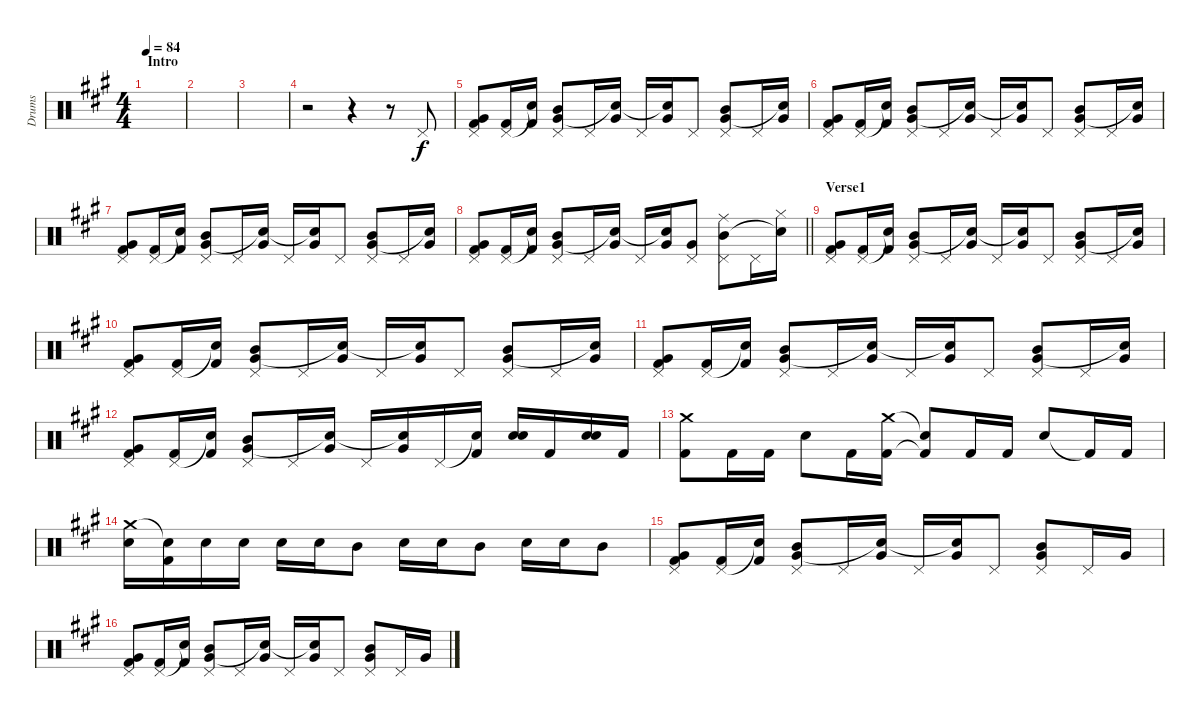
\track ("Drums" "Drums") {instrument percussion}
\staff {score}
\articulation defaults
\ts (4 4)
\section ("" "Intro")
\tempo 84
\clef neutral
\ks a
|
|
|
r.2 r.4 r.8 "Pedal Hi-Hat (hit)".8 |
("Very Low Tom (hit)" "Pedal Hi-Hat (hit)" "Kick (hit) 2").8 ("Pedal Hi-Hat (hit)" "Kick (hit) 2").16 ("Snare (hit)"{t} "Kick (hit) 2").16 ("Mid Tom (hit)" "Very Low Tom (hit)" "Pedal Hi-Hat (hit)").8 "Pedal Hi-Hat (hit)".16 ("Very Low Tom (hit)" "Snare (hit)"{t}).16 "Pedal Hi-Hat (hit)".16 ("Very Low Tom (hit)" "Snare (hit)"{t}).16 "Pedal Hi-Hat (hit)".8 ("Mid Tom (hit)" "Very Low Tom (hit)" "Pedal Hi-Hat (hit)").8 "Pedal Hi-Hat (hit)".16 ("Very Low Tom (hit)" "Snare (hit)"{t}).16 |
("Very Low Tom (hit)" "Pedal Hi-Hat (hit)" "Kick (hit) 2").8 ("Pedal Hi-Hat (hit)" "Kick (hit) 2").16 ("Snare (hit)"{t} "Kick (hit) 2").16 ("Mid Tom (hit)" "Very Low Tom (hit)" "Pedal Hi-Hat (hit)").8 "Pedal Hi-Hat (hit)".16 ("Very Low Tom (hit)" "Snare (hit)"{t}).16 "Pedal Hi-Hat (hit)".16 ("Very Low Tom (hit)" "Snare (hit)"{t}).16 "Pedal Hi-Hat (hit)".8 ("Mid Tom (hit)" "Very Low Tom (hit)" "Pedal Hi-Hat (hit)").8 "Pedal Hi-Hat (hit)".16 ("Very Low Tom (hit)" "Snare (hit)"{t}).16 |
("Very Low Tom (hit)" "Pedal Hi-Hat (hit)" "Kick (hit) 2").8 ("Pedal Hi-Hat (hit)" "Kick (hit) 2").16 ("Snare (hit)"{t} "Kick (hit) 2").16 ("Mid Tom (hit)" "Very Low Tom (hit)" "Pedal Hi-Hat (hit)").8 "Pedal Hi-Hat (hit)".16 ("Very Low Tom (hit)" "Snare (hit)"{t}).16 "Pedal Hi-Hat (hit)".16 ("Very Low Tom (hit)" "Snare (hit)"{t}).16 "Pedal Hi-Hat (hit)".8 ("Mid Tom (hit)" "Very Low Tom (hit)" "Pedal Hi-Hat (hit)").8 "Pedal Hi-Hat (hit)".16 ("Very Low Tom (hit)" "Snare (hit)"{t}).16 |
\barLineRight lightlight
("Very Low Tom (hit)" "Pedal Hi-Hat (hit)" "Kick (hit) 2").8 ("Pedal Hi-Hat (hit)" "Kick (hit) 2").16 ("Snare (hit)"{t} "Kick (hit) 2").16 ("Mid Tom (hit)" "Very Low Tom (hit)" "Pedal Hi-Hat (hit)").8 "Pedal Hi-Hat (hit)".16 ("Very Low Tom (hit)" "Snare (hit)"{t}).16 "Pedal Hi-Hat (hit)".16 ("Very Low Tom (hit)" "Snare (hit)"{t}).16 ("Very Low Tom (hit)" "Pedal Hi-Hat (hit)").8 ("Ride (middle)" "Mid Tom (hit)" "Pedal Hi-Hat (hit)").8 "Pedal Hi-Hat (hit)".16 ("Hi-Hat (closed)" "Snare (hit)"{t}).16 |
\section ("" "Verse1")
("Very Low Tom (hit)" "Pedal Hi-Hat (hit)" "Kick (hit) 2").8 ("Pedal Hi-Hat (hit)" "Kick (hit) 2").16 ("Snare (hit)"{t} "Kick (hit) 2").16 ("Mid Tom (hit)" "Very Low Tom (hit)" "Pedal Hi-Hat (hit)").8 "Pedal Hi-Hat (hit)".16 ("Very Low Tom (hit)" "Snare (hit)"{t}).16 "Pedal Hi-Hat (hit)".16 ("Very Low Tom (hit)" "Snare (hit)"{t}).16 "Pedal Hi-Hat (hit)".8 ("Mid Tom (hit)" "Very Low Tom (hit)" "Pedal Hi-Hat (hit)").8 "Pedal Hi-Hat (hit)".16 ("Very Low Tom (hit)" "Snare (hit)"{t}).16 |
("Very Low Tom (hit)" "Pedal Hi-Hat (hit)" "Kick (hit) 2").8 ("Pedal Hi-Hat (hit)" "Kick (hit) 2").16 ("Snare (hit)"{t} "Kick (hit) 2").16 ("Mid Tom (hit)" "Very Low Tom (hit)" "Pedal Hi-Hat (hit)").8 "Pedal Hi-Hat (hit)".16 ("Very Low Tom (hit)" "Snare (hit)"{t}).16 "Pedal Hi-Hat (hit)".16 ("Very Low Tom (hit)" "Snare (hit)"{t}).16 "Pedal Hi-Hat (hit)".8 ("Mid Tom (hit)" "Very Low Tom (hit)" "Pedal Hi-Hat (hit)").8 "Pedal Hi-Hat (hit)".16 ("Very Low Tom (hit)" "Snare (hit)"{t}).16 |
("Very Low Tom (hit)" "Pedal Hi-Hat (hit)" "Kick (hit) 2").8 ("Pedal Hi-Hat (hit)" "Kick (hit) 2").16 ("Snare (hit)"{t} "Kick (hit) 2").16 ("Mid Tom (hit)" "Very Low Tom (hit)" "Pedal Hi-Hat (hit)").8 "Pedal Hi-Hat (hit)".16 ("Very Low Tom (hit)" "Snare (hit)"{t}).16 "Pedal Hi-Hat (hit)".16 ("Very Low Tom (hit)" "Snare (hit)"{t}).16 "Pedal Hi-Hat (hit)".8 ("Mid Tom (hit)" "Very Low Tom (hit)" "Pedal Hi-Hat (hit)").8 "Pedal Hi-Hat (hit)".16 ("Very Low Tom (hit)" "Snare (hit)"{t}).16 |
("Very Low Tom (hit)" "Pedal Hi-Hat (hit)" "Kick (hit) 2").8 ("Pedal Hi-Hat (hit)" "Kick (hit) 2").16 ("Snare (hit)"{t} "Kick (hit) 2").16 ("Mid Tom (hit)" "Very Low Tom (hit)" "Pedal Hi-Hat (hit)").8 "Pedal Hi-Hat (hit)".16 ("Very Low Tom (hit)" "Snare (hit)"{t}).16 "Pedal Hi-Hat (hit)".16 ("Very Low Tom (hit)" "Snare (hit)"{t}).16 "Pedal Hi-Hat (hit)".16 ("Snare (hit)"{t} "Kick (hit) 2").16 ("Electric Snare (hit)" "Electric Snare (hit)").16 "Kick (hit) 2".16 ("Electric Snare (hit)" "Electric Snare (hit)").16 "Kick (hit) 2".16 |
("Crash medium (hit)" "Kick (hit) 2").8 "Kick (hit) 2".16 "Kick (hit) 2".16 "Electric Snare (hit)".8 "Kick (hit) 2".16 ("Crash medium (hit)" "Kick (hit) 2").16 ("Snare (hit)"{t} "Kick (hit) 2"{t}).8 "Kick (hit) 2".16 "Kick (hit) 2".16 "Electric Snare (hit)".8 "Kick (hit) 2"{t}.16 "Kick (hit) 2".16 |
("Crash medium (hit)" "Electric Snare (hit)").16 ("Snare (hit)"{t} "Kick (hit) 2").16 "Electric Snare (hit)".16 "Electric Snare (hit)".16 "Electric Snare (hit)".16 "Electric Snare (hit)".16 "Mid Tom (hit)".8 "Electric Snare (hit)".16 "Electric Snare (hit)".16 "Mid Tom (hit)".8 "Electric Snare (hit)".16 "Electric Snare (hit)".16 "Mid Tom (hit)".8 |
("Very Low Tom (hit)" "Pedal Hi-Hat (hit)" "Kick (hit) 2").8 ("Pedal Hi-Hat (hit)" "Kick (hit) 2").16 ("Snare (hit)"{t} "Kick (hit) 2").16 ("Mid Tom (hit)" "Very Low Tom (hit)" "Pedal Hi-Hat (hit)").8 "Pedal Hi-Hat (hit)".16 ("Very Low Tom (hit)" "Snare (hit)"{t}).16 "Pedal Hi-Hat (hit)".16 ("Very Low Tom (hit)" "Snare (hit)"{t}).16 "Pedal Hi-Hat (hit)".8 ("Mid Tom (hit)" "Very Low Tom (hit)" "Pedal Hi-Hat (hit)").8 "Pedal Hi-Hat (hit)".16 "Very Low Tom (hit)".16 |
("Very Low Tom (hit)" "Pedal Hi-Hat (hit)" "Kick (hit) 2").8 ("Pedal Hi-Hat (hit)" "Kick (hit) 2").16 ("Snare (hit)"{t} "Kick (hit) 2").16 ("Mid Tom (hit)" "Very Low Tom (hit)" "Pedal Hi-Hat (hit)").8 "Pedal Hi-Hat (hit)".16 ("Very Low Tom (hit)" "Snare (hit)"{t}).16 "Pedal Hi-Hat (hit)".16 ("Very Low Tom (hit)" "Snare (hit)"{t}).16 "Pedal Hi-Hat (hit)".8 ("Mid Tom (hit)" "Very Low Tom (hit)" "Pedal Hi-Hat (hit)").8 "Pedal Hi-Hat (hit)".16 "Very Low Tom (hit)".16
